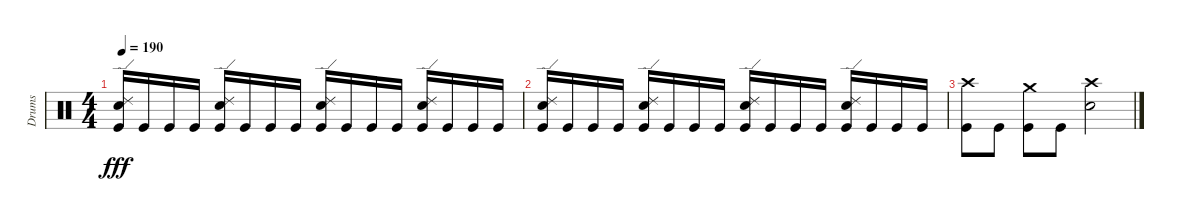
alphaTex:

\track ("Drums" "Drums") {instrument percussion}
\staff {score}
\articulation defaults
\ts (4 4)
\tempo 190
\clef neutral
\ks c
("Ride (edge) 2" "Snare (hit) 2" "Kick (hit)").16{dy fff} "Kick (hit)".16 "Kick (hit)".16 "Kick (hit)".16 ("Ride (edge) 2" "Snare (hit) 2" "Kick (hit)").16 "Kick (hit)".16 "Kick (hit)".16 "Kick (hit)".16 ("Ride (edge) 2" "Snare (hit) 2" "Kick (hit)").16 "Kick (hit)".16 "Kick (hit)".16 "Kick (hit)".16 ("Ride (edge) 2" "Snare (hit) 2" "Kick (hit)").16 "Kick (hit)".16 "Kick (hit)".16 "Kick (hit)".16 |
("Ride (edge) 2" "Snare (hit) 2" "Kick (hit)").16 "Kick (hit)".16 "Kick (hit)".16 "Kick (hit)".16 ("Ride (edge) 2" "Snare (hit) 2" "Kick (hit)").16 "Kick (hit)".16 "Kick (hit)".16 "Kick (hit)".16 ("Ride (edge) 2" "Snare (hit) 2" "Kick (hit)").16 "Kick (hit)".16 "Kick (hit)".16 "Kick (hit)".16 ("Ride (edge) 2" "Snare (hit) 2" "Kick (hit)").16 "Kick (hit)".16 "Kick (hit)".16 "Kick (hit)".16 |
("Crash high (hit)" "Kick (hit)").8 "Kick (hit)".8 ("Crash medium (hit)" "Kick (hit)").8 "Kick (hit)".8 ("Crash high (hit)" "Snare (hit) 2").2
